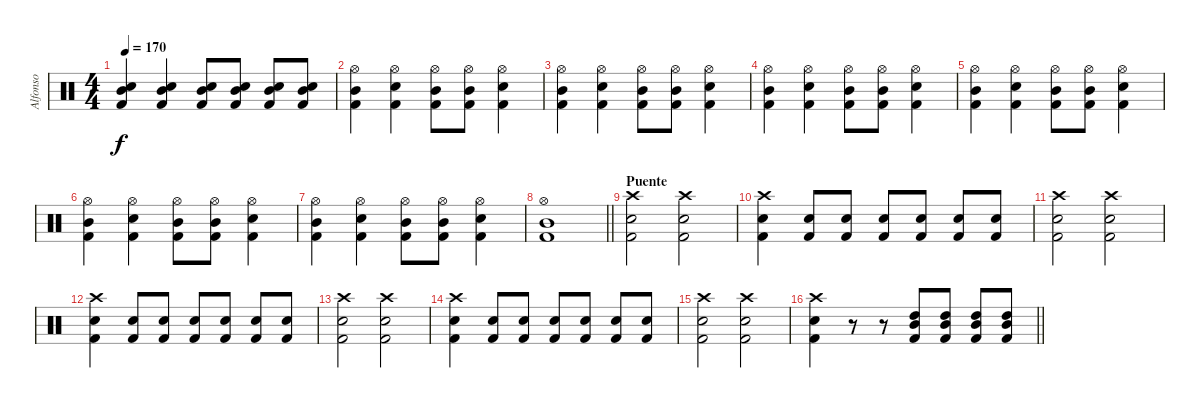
\track ("Alfonso" "Alfonso") {instrument percussion}
\staff {score}
\articulation defaults
\ts (4 4)
\tempo 170
\clef neutral
\ks c
("Kick (hit) 2" "Snare (hit) 2" "Mid Tom (hit)").4{dy f} ("Kick (hit) 2" "Snare (hit) 2" "Mid Tom (hit)").4 ("Kick (hit) 2" "Snare (hit) 2" "Mid Tom (hit)").8 ("Kick (hit) 2" "Snare (hit) 2" "Mid Tom (hit)").8 ("Kick (hit) 2" "Snare (hit) 2" "Mid Tom (hit)").8 ("Kick (hit) 2" "Snare (hit) 2" "Mid Tom (hit)").8 |
("Kick (hit) 2" "Mid Tom (hit)" "Hi-Hat (open)").4 ("Kick (hit) 2" "Snare (hit) 2" "Hi-Hat (open)").4 ("Kick (hit) 2" "Mid Tom (hit)" "Hi-Hat (open)").8 ("Kick (hit) 2" "Mid Tom (hit)" "Hi-Hat (open)").8 ("Kick (hit) 2" "Snare (hit) 2" "Hi-Hat (open)").4 |
("Kick (hit) 2" "Mid Tom (hit)" "Hi-Hat (open)").4 ("Kick (hit) 2" "Snare (hit) 2" "Hi-Hat (open)").4 ("Kick (hit) 2" "Mid Tom (hit)" "Hi-Hat (open)").8 ("Kick (hit) 2" "Mid Tom (hit)" "Hi-Hat (open)").8 ("Kick (hit) 2" "Snare (hit) 2" "Hi-Hat (open)").4 |
("Kick (hit) 2" "Mid Tom (hit)" "Hi-Hat (open)").4 ("Kick (hit) 2" "Snare (hit) 2" "Hi-Hat (open)").4 ("Kick (hit) 2" "Mid Tom (hit)" "Hi-Hat (open)").8 ("Kick (hit) 2" "Mid Tom (hit)" "Hi-Hat (open)").8 ("Kick (hit) 2" "Snare (hit) 2" "Hi-Hat (open)").4 |
("Kick (hit) 2" "Mid Tom (hit)" "Hi-Hat (open)").4 ("Kick (hit) 2" "Snare (hit) 2" "Hi-Hat (open)").4 ("Kick (hit) 2" "Mid Tom (hit)" "Hi-Hat (open)").8 ("Kick (hit) 2" "Mid Tom (hit)" "Hi-Hat (open)").8 ("Kick (hit) 2" "Snare (hit) 2" "Hi-Hat (open)").4 |
("Kick (hit) 2" "Mid Tom (hit)" "Hi-Hat (open)").4 ("Kick (hit) 2" "Snare (hit) 2" "Hi-Hat (open)").4 ("Kick (hit) 2" "Mid Tom (hit)" "Hi-Hat (open)").8 ("Kick (hit) 2" "Mid Tom (hit)" "Hi-Hat (open)").8 ("Kick (hit) 2" "Snare (hit) 2" "Hi-Hat (open)").4 |
("Kick (hit) 2" "Mid Tom (hit)" "Hi-Hat (open)").4 ("Kick (hit) 2" "Snare (hit) 2" "Hi-Hat (open)").4 ("Kick (hit) 2" "Mid Tom (hit)" "Hi-Hat (open)").8 ("Kick (hit) 2" "Mid Tom (hit)" "Hi-Hat (open)").8 ("Kick (hit) 2" "Snare (hit) 2" "Hi-Hat (open)").4 |
\barLineRight lightlight
("Kick (hit) 2" "Mid Tom (hit)" "Hi-Hat (open)").1 |
\section ("" "Puente")
("Kick (hit) 2" "Snare (hit) 2" "Crash high (hit)").2 ("Kick (hit) 2" "Snare (hit) 2" "Crash high (hit)").2 |
("Kick (hit) 2" "Snare (hit) 2" "Crash high (hit)").4 ("Kick (hit) 2" "Snare (hit) 2").8 ("Kick (hit) 2" "Snare (hit) 2").8 ("Kick (hit) 2" "Snare (hit) 2").8 ("Kick (hit) 2" "Snare (hit) 2").8 ("Kick (hit) 2" "Snare (hit) 2").8 ("Kick (hit) 2" "Snare (hit) 2").8 |
("Kick (hit) 2" "Snare (hit) 2" "Crash high (hit)").2 ("Kick (hit) 2" "Snare (hit) 2" "Crash high (hit)").2 |
("Kick (hit) 2" "Snare (hit) 2" "Crash high (hit)").4 ("Kick (hit) 2" "Snare (hit) 2").8 ("Kick (hit) 2" "Snare (hit) 2").8 ("Kick (hit) 2" "Snare (hit) 2").8 ("Kick (hit) 2" "Snare (hit) 2").8 ("Kick (hit) 2" "Snare (hit) 2").8 ("Kick (hit) 2" "Snare (hit) 2").8 |
("Kick (hit) 2" "Snare (hit) 2" "Crash high (hit)").2 ("Kick (hit) 2" "Snare (hit) 2" "Crash high (hit)").2 |
("Kick (hit) 2" "Snare (hit) 2" "Crash high (hit)").4 ("Kick (hit) 2" "Snare (hit) 2").8 ("Kick (hit) 2" "Snare (hit) 2").8 ("Kick (hit) 2" "Snare (hit) 2").8 ("Kick (hit) 2" "Snare (hit) 2").8 ("Kick (hit) 2" "Snare (hit) 2").8 ("Kick (hit) 2" "Snare (hit) 2").8 |
("Kick (hit) 2" "Snare (hit) 2" "Crash high (hit)").2 ("Kick (hit) 2" "Snare (hit) 2" "Crash high (hit)").2 |
\barLineRight lightlight
("Kick (hit) 2" "Snare (hit) 2" "Crash high (hit)").4 r.8 r.8 ("Kick (hit) 2" "High Tom (hit)" "Mid Tom (hit)").8 ("Kick (hit) 2" "High Tom (hit)" "Mid Tom (hit)").8 ("Kick (hit) 2" "High Tom (hit)" "Mid Tom (hit)").8 ("Kick (hit) 2" "High Tom (hit)" "Mid Tom (hit)").8
